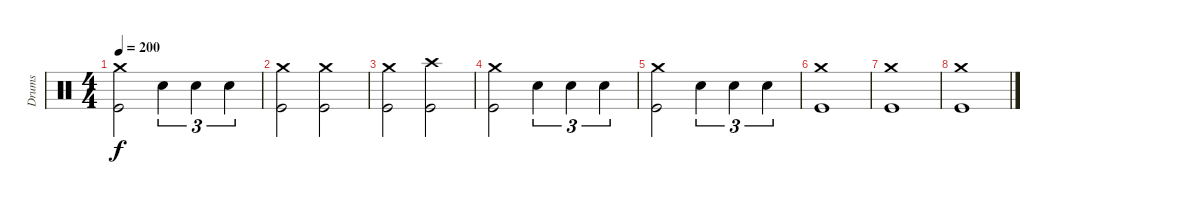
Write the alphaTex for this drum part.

\track ("Drums" "Drums") {instrument percussion}
\staff {score}
\articulation defaults
\ts (4 4)
\tempo 200
\clef neutral
\ks c
("Crash medium (hit)" "Kick (hit)").2{dy f} "Snare (hit) 2".4{tu (3 2)} "Snare (hit) 2".4{tu (3 2)} "Snare (hit) 2".4{tu (3 2)} |
("Crash medium (hit)" "Kick (hit)").2 ("Crash medium (hit)" "Kick (hit)").2 |
("Crash medium (hit)" "Kick (hit)").2 ("Crash high (hit)" "Kick (hit)").2 |
("Crash medium (hit)" "Kick (hit)").2 "Snare (hit) 2".4{tu (3 2)} "Snare (hit) 2".4{tu (3 2)} "Snare (hit) 2".4{tu (3 2)} |
("Crash medium (hit)" "Kick (hit)").2 "Snare (hit) 2".4{tu (3 2)} "Snare (hit) 2".4{tu (3 2)} "Snare (hit) 2".4{tu (3 2)} |
("Crash medium (hit)" "Kick (hit)").1 |
("Crash medium (hit)" "Kick (hit)").1 |
("Crash medium (hit)" "Kick (hit)").1
